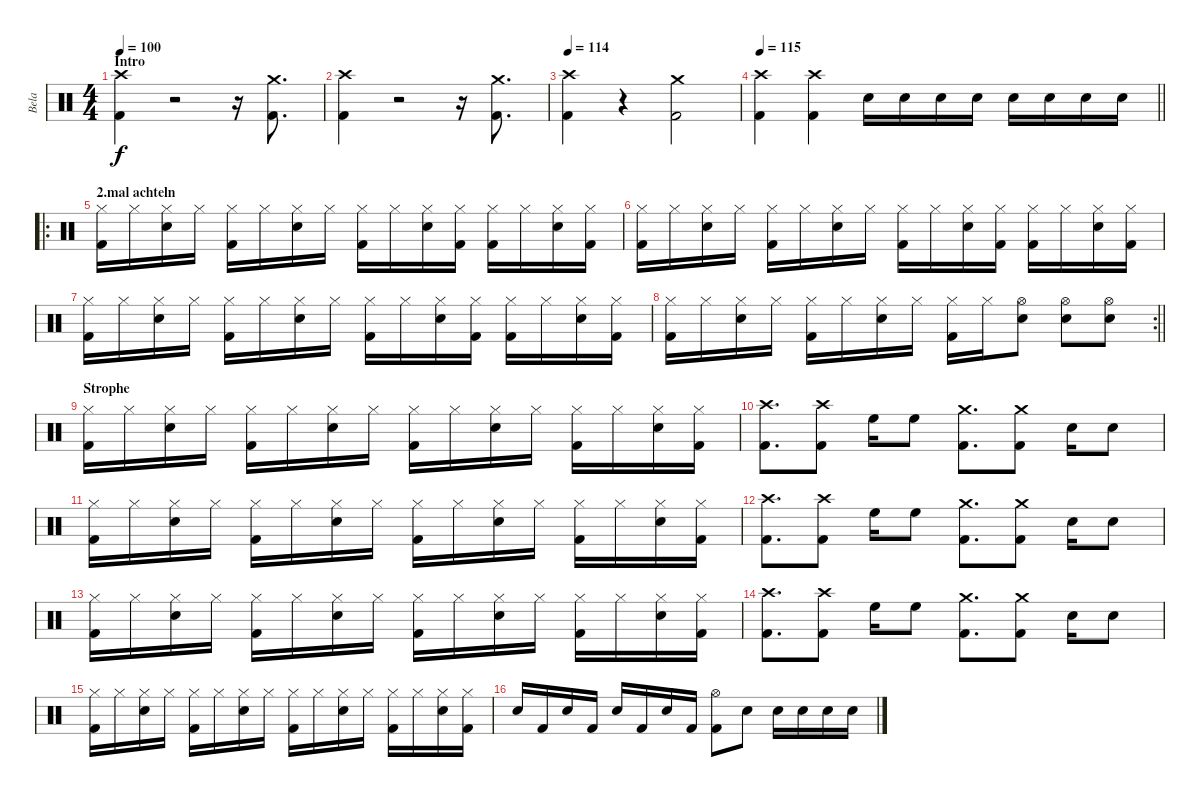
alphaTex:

\track ("Bela" "Bela") {instrument percussion}
\staff {score}
\articulation defaults
\ts (4 4)
\section ("" "Intro")
\tempo 100
\clef neutral
\ks c
("Crash high (hit)" "Kick (hit) 2").4{dy f} r.2 r.16 ("Crash medium (hit)" "Kick (hit) 2").8{d} |
("Crash high (hit)" "Kick (hit) 2").4 r.2 r.16 ("Crash medium (hit)" "Kick (hit) 2").8{d} |
\tempo 114
("Crash high (hit)" "Kick (hit) 2").4 r.4 ("Crash medium (hit)" "Kick (hit) 2").2 |
\tempo 115
\barLineRight lightlight
("Crash high (hit)" "Kick (hit) 2").4 ("Crash high (hit)" "Kick (hit) 2").4 "Electric Snare (hit)".16 "Electric Snare (hit)".16 "Electric Snare (hit)".16 "Electric Snare (hit)".16 "Electric Snare (hit)".16 "Electric Snare (hit)".16 "Electric Snare (hit)".16 "Electric Snare (hit)".16 |
\ro
\section ("" "2.mal achteln ")
("Hi-Hat (closed)" "Kick (hit) 2").16 "Hi-Hat (closed)".16 ("Hi-Hat (closed)" "Snare (hit) 2").16 "Hi-Hat (closed)".16 ("Hi-Hat (closed)" "Kick (hit) 2").16 "Hi-Hat (closed)".16 ("Hi-Hat (closed)" "Snare (hit) 2").16 "Hi-Hat (closed)".16 ("Hi-Hat (closed)" "Kick (hit) 2").16 "Hi-Hat (closed)".16 ("Hi-Hat (closed)" "Snare (hit) 2").16 ("Hi-Hat (closed)" "Kick (hit) 2").16 ("Hi-Hat (closed)" "Kick (hit) 2").16 "Hi-Hat (closed)".16 ("Hi-Hat (closed)" "Snare (hit) 2").16 ("Hi-Hat (closed)" "Kick (hit) 2").16 |
("Hi-Hat (closed)" "Kick (hit) 2").16 "Hi-Hat (closed)".16 ("Hi-Hat (closed)" "Snare (hit) 2").16 "Hi-Hat (closed)".16 ("Hi-Hat (closed)" "Kick (hit) 2").16 "Hi-Hat (closed)".16 ("Hi-Hat (closed)" "Snare (hit) 2").16 "Hi-Hat (closed)".16 ("Hi-Hat (closed)" "Kick (hit) 2").16 "Hi-Hat (closed)".16 ("Hi-Hat (closed)" "Snare (hit) 2").16 ("Hi-Hat (closed)" "Kick (hit) 2").16 ("Hi-Hat (closed)" "Kick (hit) 2").16 "Hi-Hat (closed)".16 ("Hi-Hat (closed)" "Snare (hit) 2").16 ("Hi-Hat (closed)" "Kick (hit) 2").16 |
("Hi-Hat (closed)" "Kick (hit) 2").16 "Hi-Hat (closed)".16 ("Hi-Hat (closed)" "Snare (hit) 2").16 "Hi-Hat (closed)".16 ("Hi-Hat (closed)" "Kick (hit) 2").16 "Hi-Hat (closed)".16 ("Hi-Hat (closed)" "Snare (hit) 2").16 "Hi-Hat (closed)".16 ("Hi-Hat (closed)" "Kick (hit) 2").16 "Hi-Hat (closed)".16 ("Hi-Hat (closed)" "Snare (hit) 2").16 ("Hi-Hat (closed)" "Kick (hit) 2").16 ("Hi-Hat (closed)" "Kick (hit) 2").16 "Hi-Hat (closed)".16 ("Hi-Hat (closed)" "Snare (hit) 2").16 ("Hi-Hat (closed)" "Kick (hit) 2").16 |
\rc 2
\barLineRight lightlight
("Hi-Hat (closed)" "Kick (hit) 2").16 "Hi-Hat (closed)".16 ("Hi-Hat (closed)" "Snare (hit) 2").16 "Hi-Hat (closed)".16 ("Hi-Hat (closed)" "Kick (hit) 2").16 "Hi-Hat (closed)".16 ("Hi-Hat (closed)" "Snare (hit) 2").16 "Hi-Hat (closed)".16 ("Hi-Hat (closed)" "Kick (hit) 2").16 "Hi-Hat (closed)".16 ("Hi-Hat (open)" "Snare (hit) 2").8 ("Hi-Hat (open)" "Electric Snare (hit)").8 ("Hi-Hat (open)" "Electric Snare (hit)").8 |
\section ("" "Strophe")
("Hi-Hat (closed)" "Kick (hit) 2").16 "Hi-Hat (closed)".16 ("Hi-Hat (closed)" "Snare (hit) 2").16 "Hi-Hat (closed)".16 ("Hi-Hat (closed)" "Kick (hit) 2").16 "Hi-Hat (closed)".16 ("Hi-Hat (closed)" "Snare (hit) 2").16 "Hi-Hat (closed)".16 ("Hi-Hat (closed)" "Kick (hit) 2").16 "Hi-Hat (closed)".16 ("Hi-Hat (closed)" "Snare (hit) 2").16 "Hi-Hat (closed)".16 ("Hi-Hat (closed)" "Kick (hit) 2").16 "Hi-Hat (closed)".16 ("Hi-Hat (closed)" "Snare (hit) 2").16 ("Hi-Hat (closed)" "Kick (hit) 2").16 |
("Crash high (hit)" "Kick (hit) 2").8{d} ("Crash high (hit)" "Kick (hit) 2").8 "High Floor Tom (hit)".16 "High Floor Tom (hit)".8 ("Crash medium (hit)" "Kick (hit) 2").8{d} ("Crash medium (hit)" "Kick (hit) 2").8 "Electric Snare (hit)".16 "Electric Snare (hit)".8 |
("Hi-Hat (closed)" "Kick (hit) 2").16 "Hi-Hat (closed)".16 ("Hi-Hat (closed)" "Snare (hit) 2").16 "Hi-Hat (closed)".16 ("Hi-Hat (closed)" "Kick (hit) 2").16 "Hi-Hat (closed)".16 ("Hi-Hat (closed)" "Snare (hit) 2").16 "Hi-Hat (closed)".16 ("Hi-Hat (closed)" "Kick (hit) 2").16 "Hi-Hat (closed)".16 ("Hi-Hat (closed)" "Snare (hit) 2").16 "Hi-Hat (closed)".16 ("Hi-Hat (closed)" "Kick (hit) 2").16 "Hi-Hat (closed)".16 ("Hi-Hat (closed)" "Snare (hit) 2").16 ("Hi-Hat (closed)" "Kick (hit) 2").16 |
("Crash high (hit)" "Kick (hit) 2").8{d} ("Crash high (hit)" "Kick (hit) 2").8 "High Floor Tom (hit)".16 "High Floor Tom (hit)".8 ("Crash medium (hit)" "Kick (hit) 2").8{d} ("Crash medium (hit)" "Kick (hit) 2").8 "Electric Snare (hit)".16 "Electric Snare (hit)".8 |
("Hi-Hat (closed)" "Kick (hit) 2").16 "Hi-Hat (closed)".16 ("Hi-Hat (closed)" "Snare (hit) 2").16 "Hi-Hat (closed)".16 ("Hi-Hat (closed)" "Kick (hit) 2").16 "Hi-Hat (closed)".16 ("Hi-Hat (closed)" "Snare (hit) 2").16 "Hi-Hat (closed)".16 ("Hi-Hat (closed)" "Kick (hit) 2").16 "Hi-Hat (closed)".16 ("Hi-Hat (closed)" "Snare (hit) 2").16 "Hi-Hat (closed)".16 ("Hi-Hat (closed)" "Kick (hit) 2").16 "Hi-Hat (closed)".16 ("Hi-Hat (closed)" "Snare (hit) 2").16 ("Hi-Hat (closed)" "Kick (hit) 2").16 |
("Crash high (hit)" "Kick (hit) 2").8{d} ("Crash high (hit)" "Kick (hit) 2").8 "High Floor Tom (hit)".16 "High Floor Tom (hit)".8 ("Crash medium (hit)" "Kick (hit) 2").8{d} ("Crash medium (hit)" "Kick (hit) 2").8 "Electric Snare (hit)".16 "Electric Snare (hit)".8 |
("Hi-Hat (closed)" "Kick (hit) 2").16 "Hi-Hat (closed)".16 ("Hi-Hat (closed)" "Snare (hit) 2").16 "Hi-Hat (closed)".16 ("Hi-Hat (closed)" "Kick (hit) 2").16 "Hi-Hat (closed)".16 ("Hi-Hat (closed)" "Snare (hit) 2").16 "Hi-Hat (closed)".16 ("Hi-Hat (closed)" "Kick (hit) 2").16 "Hi-Hat (closed)".16 ("Hi-Hat (closed)" "Snare (hit) 2").16 "Hi-Hat (closed)".16 ("Hi-Hat (closed)" "Kick (hit) 2").16 "Hi-Hat (closed)".16 ("Hi-Hat (closed)" "Snare (hit) 2").16 ("Hi-Hat (closed)" "Kick (hit) 2").16 |
"Electric Snare (hit)".16 "Kick (hit) 2".16 "Electric Snare (hit)".16 "Kick (hit) 2".16 "Electric Snare (hit)".16 "Kick (hit) 2".16 "Electric Snare (hit)".16 "Kick (hit) 2".16 ("Hi-Hat (open)" "Kick (hit) 2").8 "Electric Snare (hit)".8 "Electric Snare (hit)".16 "Electric Snare (hit)".16 "Electric Snare (hit)".16 "Electric Snare (hit)".16
